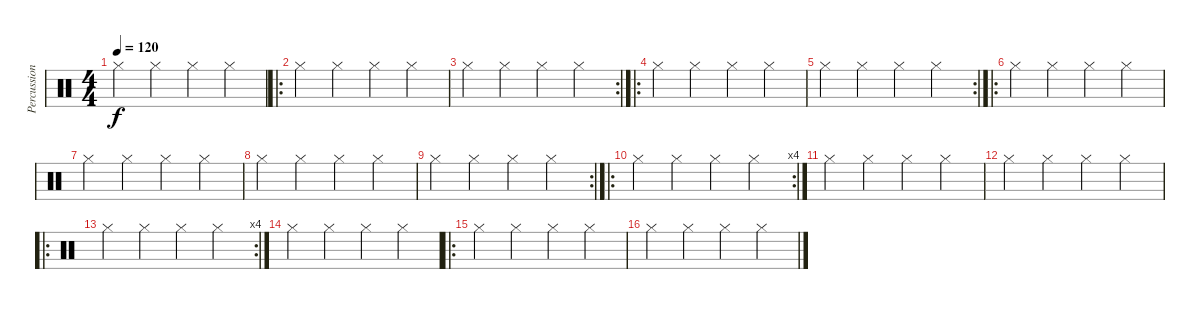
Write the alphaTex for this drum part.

\track ("Percussioni" "Percussion") {instrument percussion}
\staff {score}
\articulation defaults
\ts (4 4)
\tempo 120
\clef neutral
\ks c "Hi-Hat (closed)".4{dy f} "Hi-Hat (closed)".4 "Hi-Hat (closed)".4 "Hi-Hat (closed)".4
|
\ro "Hi-Hat (closed)".4 "Hi-Hat (closed)".4 "Hi-Hat (closed)".4 "Hi-Hat (closed)".4
|
\rc 2 "Hi-Hat (closed)".4 "Hi-Hat (closed)".4 "Hi-Hat (closed)".4 "Hi-Hat (closed)".4
|
\ro "Hi-Hat (closed)".4 "Hi-Hat (closed)".4 "Hi-Hat (closed)".4 "Hi-Hat (closed)".4
|
\rc 2 "Hi-Hat (closed)".4 "Hi-Hat (closed)".4 "Hi-Hat (closed)".4 "Hi-Hat (closed)".4
|
\ro "Hi-Hat (closed)".4 "Hi-Hat (closed)".4 "Hi-Hat (closed)".4 "Hi-Hat (closed)".4
|
"Hi-Hat (closed)".4 "Hi-Hat (closed)".4 "Hi-Hat (closed)".4 "Hi-Hat (closed)".4 |
"Hi-Hat (closed)".4 "Hi-Hat (closed)".4 "Hi-Hat (closed)".4 "Hi-Hat (closed)".4 |
\rc 2 "Hi-Hat (closed)".4 "Hi-Hat (closed)".4 "Hi-Hat (closed)".4 "Hi-Hat (closed)".4
|
\ro
\rc 4 "Hi-Hat (closed)".4 "Hi-Hat (closed)".4 "Hi-Hat (closed)".4 "Hi-Hat (closed)".4
|
"Hi-Hat (closed)".4 "Hi-Hat (closed)".4 "Hi-Hat (closed)".4 "Hi-Hat (closed)".4 |
"Hi-Hat (closed)".4 "Hi-Hat (closed)".4 "Hi-Hat (closed)".4 "Hi-Hat (closed)".4 |
\ro
\rc 4 "Hi-Hat (closed)".4 "Hi-Hat (closed)".4 "Hi-Hat (closed)".4 "Hi-Hat (closed)".4
|
"Hi-Hat (closed)".4 "Hi-Hat (closed)".4 "Hi-Hat (closed)".4 "Hi-Hat (closed)".4 |
\ro "Hi-Hat (closed)".4 "Hi-Hat (closed)".4 "Hi-Hat (closed)".4 "Hi-Hat (closed)".4
|
"Hi-Hat (closed)".4 "Hi-Hat (closed)".4 "Hi-Hat (closed)".4 "Hi-Hat (closed)".4
